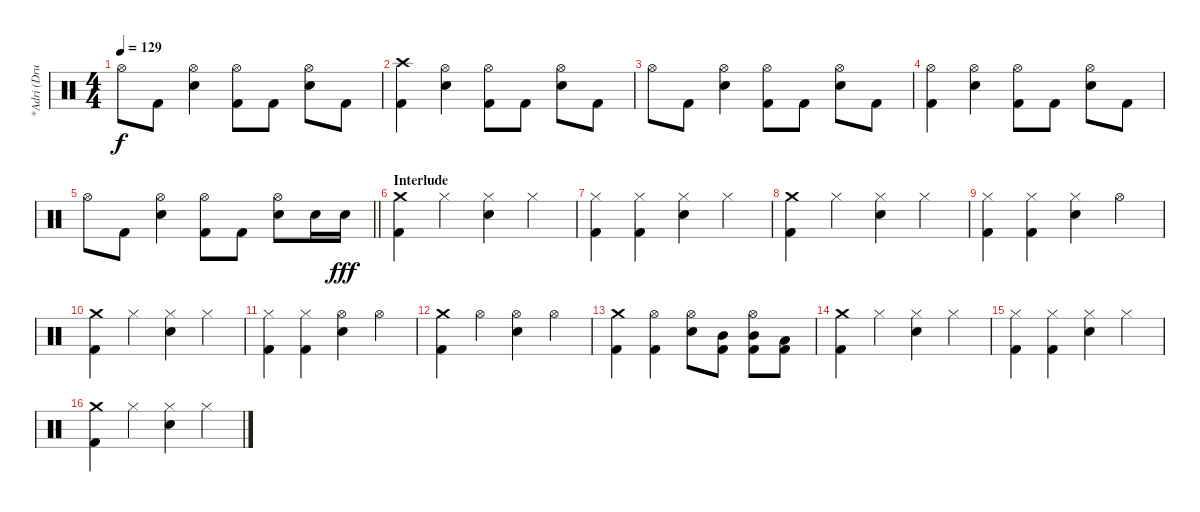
\track ("*Adri (Drum)" "*Adri (Dru") {instrument percussion}
\staff {score}
\articulation defaults
\ts (4 4)
\tempo 129
\clef neutral
\ks c "Hi-Hat (open)".8{dy f} "Kick (hit) 2".8
("Hi-Hat (open)" "Snare (hit) 2").4 ("Hi-Hat (open)" "Kick (hit) 2").8 "Kick (hit) 2".8 ("Hi-Hat (open)" "Snare (hit) 2").8 "Kick (hit) 2".8 |
("Crash high (hit)" "Kick (hit) 2").4 ("Hi-Hat (open)" "Snare (hit) 2").4 ("Hi-Hat (open)" "Kick (hit) 2").8 "Kick (hit) 2".8 ("Hi-Hat (open)" "Snare (hit) 2").8 "Kick (hit) 2".8 |
"Hi-Hat (open)".8 "Kick (hit) 2".8 ("Hi-Hat (open)" "Snare (hit) 2").4 ("Hi-Hat (open)" "Kick (hit) 2").8 "Kick (hit) 2".8 ("Hi-Hat (open)" "Snare (hit) 2").8 "Kick (hit) 2".8 |
("Hi-Hat (open)" "Kick (hit) 2").4 ("Hi-Hat (open)" "Snare (hit) 2").4 ("Hi-Hat (open)" "Kick (hit) 2").8 "Kick (hit) 2".8 ("Hi-Hat (open)" "Snare (hit) 2").8 "Kick (hit) 2".8 |
\barLineRight lightlight "Hi-Hat (open)".8 "Kick (hit) 2".8
("Hi-Hat (open)" "Snare (hit) 2").4 ("Hi-Hat (open)" "Kick (hit) 2").8 "Kick (hit) 2".8 ("Hi-Hat (open)" "Snare (hit) 2").8 "Snare (hit) 2".16 "Snare (hit) 2".16{dy fff} |
\section ("" "Interlude")
("Crash medium (hit)" "Kick (hit) 2").4 "Hi-Hat (closed)".4 ("Hi-Hat (closed)" "Snare (hit) 2").4 "Hi-Hat (closed)".4 |
("Hi-Hat (closed)" "Kick (hit) 2").4 ("Hi-Hat (closed)" "Kick (hit) 2").4 ("Hi-Hat (closed)" "Snare (hit) 2").4 "Hi-Hat (closed)".4 |
("Crash medium (hit)" "Kick (hit) 2").4 "Hi-Hat (closed)".4 ("Hi-Hat (closed)" "Snare (hit) 2").4 "Hi-Hat (closed)".4 |
("Hi-Hat (closed)" "Kick (hit) 2").4 ("Hi-Hat (closed)" "Kick (hit) 2").4 ("Hi-Hat (closed)" "Snare (hit) 2").4 "Hi-Hat (open)".4 |
("Crash medium (hit)" "Kick (hit) 2").4 "Hi-Hat (closed)".4 ("Hi-Hat (closed)" "Snare (hit) 2").4 "Hi-Hat (closed)".4 |
("Hi-Hat (closed)" "Kick (hit) 2").4 ("Hi-Hat (closed)" "Kick (hit) 2").4 ("Hi-Hat (open)" "Snare (hit) 2").4 "Hi-Hat (open)".4 |
("Crash medium (hit)" "Kick (hit) 2").4 "Hi-Hat (open)".4 ("Hi-Hat (open)" "Snare (hit) 2").4 "Hi-Hat (open)".4 |
("Crash medium (hit)" "Kick (hit) 2").4 ("Hi-Hat (open)" "Kick (hit) 2").4 ("Hi-Hat (open)" "Snare (hit) 2").8 ("Mid Tom (hit)" "Kick (hit) 2").8 ("Hi-Hat (open)" "Mid Tom (hit)" "Kick (hit) 2").8 ("Low Tom (hit)" "Kick (hit) 2").8 |
("Crash medium (hit)" "Kick (hit) 2").4 "Hi-Hat (closed)".4 ("Hi-Hat (closed)" "Snare (hit) 2").4 "Hi-Hat (closed)".4 |
("Hi-Hat (closed)" "Kick (hit) 2").4 ("Hi-Hat (closed)" "Kick (hit) 2").4 ("Hi-Hat (closed)" "Snare (hit) 2").4 "Hi-Hat (closed)".4 |
("Crash medium (hit)" "Kick (hit) 2").4 "Hi-Hat (closed)".4 ("Hi-Hat (closed)" "Snare (hit) 2").4 "Hi-Hat (closed)".4
